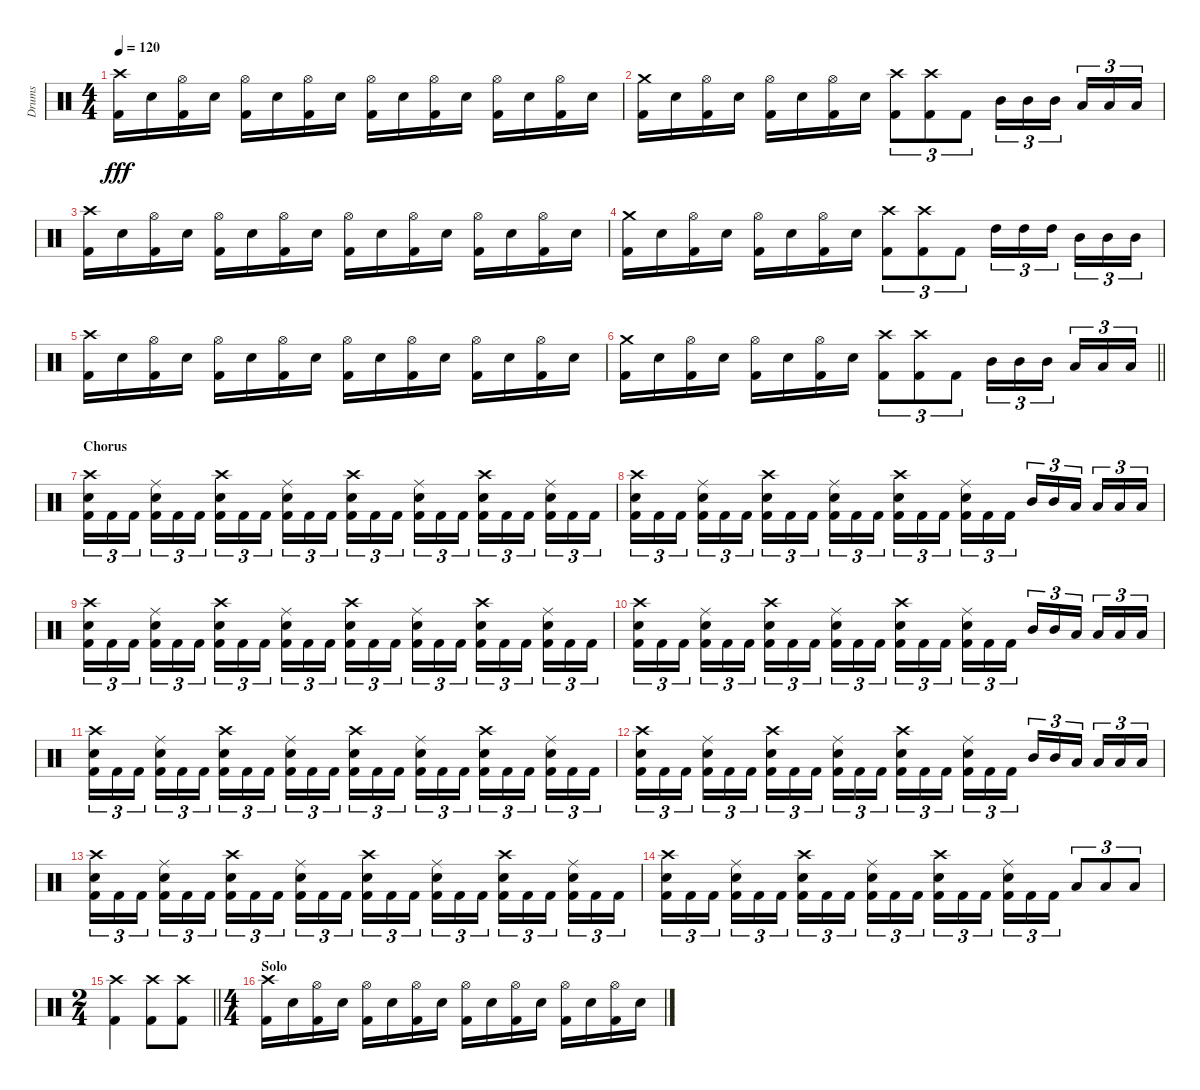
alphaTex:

\track ("Drums" "Drums") {instrument percussion}
\staff {score}
\articulation defaults
\ts (4 4)
\tempo 120
\clef neutral
\ks c
("Crash high (hit)" "Kick (hit) 2").16{dy fff} "Snare (hit) 2".16 ("Hi-Hat (open)" "Kick (hit) 2").16 "Snare (hit) 2".16 ("Hi-Hat (open)" "Kick (hit) 2").16 "Snare (hit) 2".16 ("Hi-Hat (open)" "Kick (hit) 2").16 "Snare (hit) 2".16 ("Hi-Hat (open)" "Kick (hit) 2").16 "Snare (hit) 2".16 ("Hi-Hat (open)" "Kick (hit) 2").16 "Snare (hit) 2".16 ("Hi-Hat (open)" "Kick (hit) 2").16 "Snare (hit) 2".16 ("Hi-Hat (open)" "Kick (hit) 2").16 "Snare (hit) 2".16 |
("Crash medium (hit)" "Kick (hit) 2").16 "Snare (hit) 2".16 ("Hi-Hat (open)" "Kick (hit) 2").16 "Snare (hit) 2".16 ("Hi-Hat (open)" "Kick (hit) 2").16 "Snare (hit) 2".16 ("Hi-Hat (open)" "Kick (hit) 2").16 "Snare (hit) 2".16 ("Crash high (hit)" "Kick (hit) 2").8{tu (3 2)} ("Crash high (hit)" "Kick (hit) 2").8{tu (3 2)} "Kick (hit) 2".8{tu (3 2)} "Mid Tom (hit)".16{tu (3 2)} "Mid Tom (hit)".16{tu (3 2)} "Mid Tom (hit)".16{tu (3 2) beam splitsecondary} "Low Tom (hit)".16{tu (3 2)} "Low Tom (hit)".16{tu (3 2)} "Low Tom (hit)".16{tu (3 2)} |
("Crash high (hit)" "Kick (hit) 2").16 "Snare (hit) 2".16 ("Hi-Hat (open)" "Kick (hit) 2").16 "Snare (hit) 2".16 ("Hi-Hat (open)" "Kick (hit) 2").16 "Snare (hit) 2".16 ("Hi-Hat (open)" "Kick (hit) 2").16 "Snare (hit) 2".16 ("Hi-Hat (open)" "Kick (hit) 2").16 "Snare (hit) 2".16 ("Hi-Hat (open)" "Kick (hit) 2").16 "Snare (hit) 2".16 ("Hi-Hat (open)" "Kick (hit) 2").16 "Snare (hit) 2".16 ("Hi-Hat (open)" "Kick (hit) 2").16 "Snare (hit) 2".16 |
("Crash medium (hit)" "Kick (hit) 2").16 "Snare (hit) 2".16 ("Hi-Hat (open)" "Kick (hit) 2").16 "Snare (hit) 2".16 ("Hi-Hat (open)" "Kick (hit) 2").16 "Snare (hit) 2".16 ("Hi-Hat (open)" "Kick (hit) 2").16 "Snare (hit) 2".16 ("Crash high (hit)" "Kick (hit) 2").8{tu (3 2)} ("Crash high (hit)" "Kick (hit) 2").8{tu (3 2)} "Kick (hit) 2".8{tu (3 2)} "High Tom (hit)".16{tu (3 2)} "High Tom (hit)".16{tu (3 2)} "High Tom (hit)".16{tu (3 2) beam splitsecondary} "Mid Tom (hit)".16{tu (3 2)} "Mid Tom (hit)".16{tu (3 2)} "Mid Tom (hit)".16{tu (3 2)} |
("Crash high (hit)" "Kick (hit) 2").16 "Snare (hit) 2".16 ("Hi-Hat (open)" "Kick (hit) 2").16 "Snare (hit) 2".16 ("Hi-Hat (open)" "Kick (hit) 2").16 "Snare (hit) 2".16 ("Hi-Hat (open)" "Kick (hit) 2").16 "Snare (hit) 2".16 ("Hi-Hat (open)" "Kick (hit) 2").16 "Snare (hit) 2".16 ("Hi-Hat (open)" "Kick (hit) 2").16 "Snare (hit) 2".16 ("Hi-Hat (open)" "Kick (hit) 2").16 "Snare (hit) 2".16 ("Hi-Hat (open)" "Kick (hit) 2").16 "Snare (hit) 2".16 |
\barLineRight lightlight
("Crash medium (hit)" "Kick (hit) 2").16 "Snare (hit) 2".16 ("Hi-Hat (open)" "Kick (hit) 2").16 "Snare (hit) 2".16 ("Hi-Hat (open)" "Kick (hit) 2").16 "Snare (hit) 2".16 ("Hi-Hat (open)" "Kick (hit) 2").16 "Snare (hit) 2".16 ("Crash high (hit)" "Kick (hit) 2").8{tu (3 2)} ("Crash high (hit)" "Kick (hit) 2").8{tu (3 2)} "Kick (hit) 2".8{tu (3 2)} "Mid Tom (hit)".16{tu (3 2)} "Mid Tom (hit)".16{tu (3 2)} "Mid Tom (hit)".16{tu (3 2) beam splitsecondary} "Low Tom (hit)".16{tu (3 2)} "Low Tom (hit)".16{tu (3 2)} "Low Tom (hit)".16{tu (3 2)} |
\section ("" "Chorus")
("Crash high (hit)" "Snare (hit) 2" "Kick (hit) 2").16{tu (3 2)} "Kick (hit) 2".16{tu (3 2)} "Kick (hit) 2".16{tu (3 2) beam splitsecondary} ("Ride (middle)" "Snare (hit) 2" "Kick (hit) 2").16{tu (3 2)} "Kick (hit) 2".16{tu (3 2)} "Kick (hit) 2".16{tu (3 2)} ("Crash high (hit)" "Snare (hit) 2" "Kick (hit) 2").16{tu (3 2)} "Kick (hit) 2".16{tu (3 2)} "Kick (hit) 2".16{tu (3 2) beam splitsecondary} ("Ride (middle)" "Snare (hit) 2" "Kick (hit) 2").16{tu (3 2)} "Kick (hit) 2".16{tu (3 2)} "Kick (hit) 2".16{tu (3 2)} ("Crash high (hit)" "Snare (hit) 2" "Kick (hit) 2").16{tu (3 2)} "Kick (hit) 2".16{tu (3 2)} "Kick (hit) 2".16{tu (3 2) beam splitsecondary} ("Ride (middle)" "Snare (hit) 2" "Kick (hit) 2").16{tu (3 2)} "Kick (hit) 2".16{tu (3 2)} "Kick (hit) 2".16{tu (3 2)} ("Crash high (hit)" "Snare (hit) 2" "Kick (hit) 2").16{tu (3 2)} "Kick (hit) 2".16{tu (3 2)} "Kick (hit) 2".16{tu (3 2) beam splitsecondary} ("Ride (middle)" "Snare (hit) 2" "Kick (hit) 2").16{tu (3 2)} "Kick (hit) 2".16{tu (3 2)} "Kick (hit) 2".16{tu (3 2)} |
("Crash high (hit)" "Snare (hit) 2" "Kick (hit) 2").16{tu (3 2)} "Kick (hit) 2".16{tu (3 2)} "Kick (hit) 2".16{tu (3 2) beam splitsecondary} ("Ride (middle)" "Snare (hit) 2" "Kick (hit) 2").16{tu (3 2)} "Kick (hit) 2".16{tu (3 2)} "Kick (hit) 2".16{tu (3 2)} ("Crash high (hit)" "Snare (hit) 2" "Kick (hit) 2").16{tu (3 2)} "Kick (hit) 2".16{tu (3 2)} "Kick (hit) 2".16{tu (3 2) beam splitsecondary} ("Ride (middle)" "Snare (hit) 2" "Kick (hit) 2").16{tu (3 2)} "Kick (hit) 2".16{tu (3 2)} "Kick (hit) 2".16{tu (3 2)} ("Crash high (hit)" "Snare (hit) 2" "Kick (hit) 2").16{tu (3 2)} "Kick (hit) 2".16{tu (3 2)} "Kick (hit) 2".16{tu (3 2) beam splitsecondary} ("Ride (middle)" "Snare (hit) 2" "Kick (hit) 2").16{tu (3 2)} "Kick (hit) 2".16{tu (3 2)} "Kick (hit) 2".16{tu (3 2)} "Mid Tom (hit)".16{tu (3 2)} "Mid Tom (hit)".16{tu (3 2)} "Low Tom (hit)".16{tu (3 2) beam splitsecondary} "Low Tom (hit)".16{tu (3 2)} "Low Tom (hit)".16{tu (3 2)} "Low Tom (hit)".16{tu (3 2)} |
("Crash high (hit)" "Snare (hit) 2" "Kick (hit) 2").16{tu (3 2)} "Kick (hit) 2".16{tu (3 2)} "Kick (hit) 2".16{tu (3 2) beam splitsecondary} ("Ride (middle)" "Snare (hit) 2" "Kick (hit) 2").16{tu (3 2)} "Kick (hit) 2".16{tu (3 2)} "Kick (hit) 2".16{tu (3 2)} ("Crash high (hit)" "Snare (hit) 2" "Kick (hit) 2").16{tu (3 2)} "Kick (hit) 2".16{tu (3 2)} "Kick (hit) 2".16{tu (3 2) beam splitsecondary} ("Ride (middle)" "Snare (hit) 2" "Kick (hit) 2").16{tu (3 2)} "Kick (hit) 2".16{tu (3 2)} "Kick (hit) 2".16{tu (3 2)} ("Crash high (hit)" "Snare (hit) 2" "Kick (hit) 2").16{tu (3 2)} "Kick (hit) 2".16{tu (3 2)} "Kick (hit) 2".16{tu (3 2) beam splitsecondary} ("Ride (middle)" "Snare (hit) 2" "Kick (hit) 2").16{tu (3 2)} "Kick (hit) 2".16{tu (3 2)} "Kick (hit) 2".16{tu (3 2)} ("Crash high (hit)" "Snare (hit) 2" "Kick (hit) 2").16{tu (3 2)} "Kick (hit) 2".16{tu (3 2)} "Kick (hit) 2".16{tu (3 2) beam splitsecondary} ("Ride (middle)" "Snare (hit) 2" "Kick (hit) 2").16{tu (3 2)} "Kick (hit) 2".16{tu (3 2)} "Kick (hit) 2".16{tu (3 2)} |
("Crash high (hit)" "Snare (hit) 2" "Kick (hit) 2").16{tu (3 2)} "Kick (hit) 2".16{tu (3 2)} "Kick (hit) 2".16{tu (3 2) beam splitsecondary} ("Ride (middle)" "Snare (hit) 2" "Kick (hit) 2").16{tu (3 2)} "Kick (hit) 2".16{tu (3 2)} "Kick (hit) 2".16{tu (3 2)} ("Crash high (hit)" "Snare (hit) 2" "Kick (hit) 2").16{tu (3 2)} "Kick (hit) 2".16{tu (3 2)} "Kick (hit) 2".16{tu (3 2) beam splitsecondary} ("Ride (middle)" "Snare (hit) 2" "Kick (hit) 2").16{tu (3 2)} "Kick (hit) 2".16{tu (3 2)} "Kick (hit) 2".16{tu (3 2)} ("Crash high (hit)" "Snare (hit) 2" "Kick (hit) 2").16{tu (3 2)} "Kick (hit) 2".16{tu (3 2)} "Kick (hit) 2".16{tu (3 2) beam splitsecondary} ("Ride (middle)" "Snare (hit) 2" "Kick (hit) 2").16{tu (3 2)} "Kick (hit) 2".16{tu (3 2)} "Kick (hit) 2".16{tu (3 2)} "Mid Tom (hit)".16{tu (3 2)} "Mid Tom (hit)".16{tu (3 2)} "Low Tom (hit)".16{tu (3 2) beam splitsecondary} "Low Tom (hit)".16{tu (3 2)} "Low Tom (hit)".16{tu (3 2)} "Low Tom (hit)".16{tu (3 2)} |
("Crash high (hit)" "Snare (hit) 2" "Kick (hit) 2").16{tu (3 2)} "Kick (hit) 2".16{tu (3 2)} "Kick (hit) 2".16{tu (3 2) beam splitsecondary} ("Ride (middle)" "Snare (hit) 2" "Kick (hit) 2").16{tu (3 2)} "Kick (hit) 2".16{tu (3 2)} "Kick (hit) 2".16{tu (3 2)} ("Crash high (hit)" "Snare (hit) 2" "Kick (hit) 2").16{tu (3 2)} "Kick (hit) 2".16{tu (3 2)} "Kick (hit) 2".16{tu (3 2) beam splitsecondary} ("Ride (middle)" "Snare (hit) 2" "Kick (hit) 2").16{tu (3 2)} "Kick (hit) 2".16{tu (3 2)} "Kick (hit) 2".16{tu (3 2)} ("Crash high (hit)" "Snare (hit) 2" "Kick (hit) 2").16{tu (3 2)} "Kick (hit) 2".16{tu (3 2)} "Kick (hit) 2".16{tu (3 2) beam splitsecondary} ("Ride (middle)" "Snare (hit) 2" "Kick (hit) 2").16{tu (3 2)} "Kick (hit) 2".16{tu (3 2)} "Kick (hit) 2".16{tu (3 2)} ("Crash high (hit)" "Snare (hit) 2" "Kick (hit) 2").16{tu (3 2)} "Kick (hit) 2".16{tu (3 2)} "Kick (hit) 2".16{tu (3 2) beam splitsecondary} ("Ride (middle)" "Snare (hit) 2" "Kick (hit) 2").16{tu (3 2)} "Kick (hit) 2".16{tu (3 2)} "Kick (hit) 2".16{tu (3 2)} |
("Crash high (hit)" "Snare (hit) 2" "Kick (hit) 2").16{tu (3 2)} "Kick (hit) 2".16{tu (3 2)} "Kick (hit) 2".16{tu (3 2) beam splitsecondary} ("Ride (middle)" "Snare (hit) 2" "Kick (hit) 2").16{tu (3 2)} "Kick (hit) 2".16{tu (3 2)} "Kick (hit) 2".16{tu (3 2)} ("Crash high (hit)" "Snare (hit) 2" "Kick (hit) 2").16{tu (3 2)} "Kick (hit) 2".16{tu (3 2)} "Kick (hit) 2".16{tu (3 2) beam splitsecondary} ("Ride (middle)" "Snare (hit) 2" "Kick (hit) 2").16{tu (3 2)} "Kick (hit) 2".16{tu (3 2)} "Kick (hit) 2".16{tu (3 2)} ("Crash high (hit)" "Snare (hit) 2" "Kick (hit) 2").16{tu (3 2)} "Kick (hit) 2".16{tu (3 2)} "Kick (hit) 2".16{tu (3 2) beam splitsecondary} ("Ride (middle)" "Snare (hit) 2" "Kick (hit) 2").16{tu (3 2)} "Kick (hit) 2".16{tu (3 2)} "Kick (hit) 2".16{tu (3 2)} "Mid Tom (hit)".16{tu (3 2)} "Mid Tom (hit)".16{tu (3 2)} "Low Tom (hit)".16{tu (3 2) beam splitsecondary} "Low Tom (hit)".16{tu (3 2)} "Low Tom (hit)".16{tu (3 2)} "Low Tom (hit)".16{tu (3 2)} |
("Crash high (hit)" "Snare (hit) 2" "Kick (hit) 2").16{tu (3 2)} "Kick (hit) 2".16{tu (3 2)} "Kick (hit) 2".16{tu (3 2) beam splitsecondary} ("Ride (middle)" "Snare (hit) 2" "Kick (hit) 2").16{tu (3 2)} "Kick (hit) 2".16{tu (3 2)} "Kick (hit) 2".16{tu (3 2)} ("Crash high (hit)" "Snare (hit) 2" "Kick (hit) 2").16{tu (3 2)} "Kick (hit) 2".16{tu (3 2)} "Kick (hit) 2".16{tu (3 2) beam splitsecondary} ("Ride (middle)" "Snare (hit) 2" "Kick (hit) 2").16{tu (3 2)} "Kick (hit) 2".16{tu (3 2)} "Kick (hit) 2".16{tu (3 2)} ("Crash high (hit)" "Snare (hit) 2" "Kick (hit) 2").16{tu (3 2)} "Kick (hit) 2".16{tu (3 2)} "Kick (hit) 2".16{tu (3 2) beam splitsecondary} ("Ride (middle)" "Snare (hit) 2" "Kick (hit) 2").16{tu (3 2)} "Kick (hit) 2".16{tu (3 2)} "Kick (hit) 2".16{tu (3 2)} ("Crash high (hit)" "Snare (hit) 2" "Kick (hit) 2").16{tu (3 2)} "Kick (hit) 2".16{tu (3 2)} "Kick (hit) 2".16{tu (3 2) beam splitsecondary} ("Ride (middle)" "Snare (hit) 2" "Kick (hit) 2").16{tu (3 2)} "Kick (hit) 2".16{tu (3 2)} "Kick (hit) 2".16{tu (3 2)} |
("Crash high (hit)" "Snare (hit) 2" "Kick (hit) 2").16{tu (3 2)} "Kick (hit) 2".16{tu (3 2)} "Kick (hit) 2".16{tu (3 2) beam splitsecondary} ("Ride (middle)" "Snare (hit) 2" "Kick (hit) 2").16{tu (3 2)} "Kick (hit) 2".16{tu (3 2)} "Kick (hit) 2".16{tu (3 2)} ("Crash high (hit)" "Snare (hit) 2" "Kick (hit) 2").16{tu (3 2)} "Kick (hit) 2".16{tu (3 2)} "Kick (hit) 2".16{tu (3 2) beam splitsecondary} ("Ride (middle)" "Snare (hit) 2" "Kick (hit) 2").16{tu (3 2)} "Kick (hit) 2".16{tu (3 2)} "Kick (hit) 2".16{tu (3 2)} ("Crash high (hit)" "Snare (hit) 2" "Kick (hit) 2").16{tu (3 2)} "Kick (hit) 2".16{tu (3 2)} "Kick (hit) 2".16{tu (3 2) beam splitsecondary} ("Ride (middle)" "Snare (hit) 2" "Kick (hit) 2").16{tu (3 2)} "Kick (hit) 2".16{tu (3 2)} "Kick (hit) 2".16{tu (3 2)} "Low Tom (hit)".8{tu (3 2)} "Low Tom (hit)".8{tu (3 2)} "Low Tom (hit)".8{tu (3 2)} |
\ts (2 4)
\barLineRight lightlight
("Crash high (hit)" "Kick (hit) 2").4 ("Crash high (hit)" "Kick (hit) 2").8 ("Crash high (hit)" "Kick (hit) 2").8 |
\ts (4 4)
\section ("" "Solo")
("Crash high (hit)" "Kick (hit) 2").16 "Snare (hit) 2".16 ("Hi-Hat (open)" "Kick (hit) 2").16 "Snare (hit) 2".16 ("Hi-Hat (open)" "Kick (hit) 2").16 "Snare (hit) 2".16 ("Hi-Hat (open)" "Kick (hit) 2").16 "Snare (hit) 2".16 ("Hi-Hat (open)" "Kick (hit) 2").16 "Snare (hit) 2".16 ("Hi-Hat (open)" "Kick (hit) 2").16 "Snare (hit) 2".16 ("Hi-Hat (open)" "Kick (hit) 2").16 "Snare (hit) 2".16 ("Hi-Hat (open)" "Kick (hit) 2").16 "Snare (hit) 2".16
